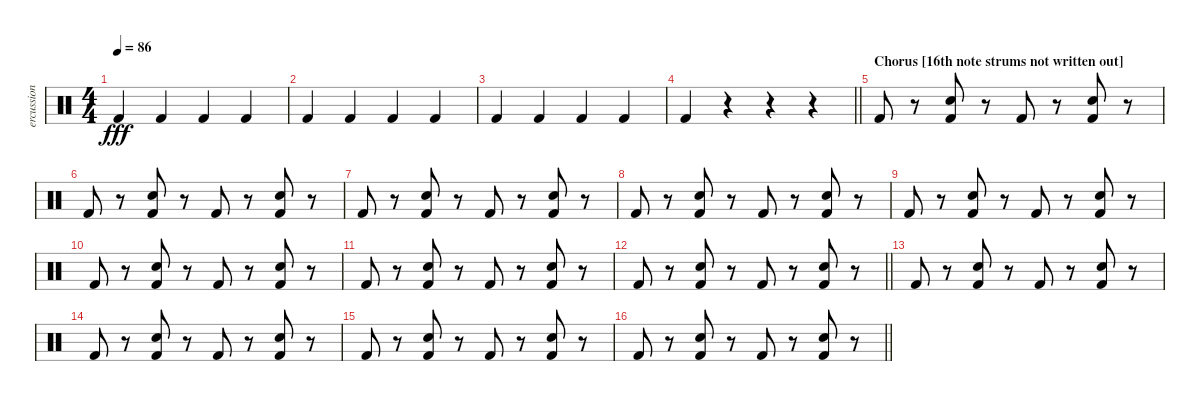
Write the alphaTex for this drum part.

\track ("ercussion" "ercussion") {instrument percussion}
\staff {score}
\articulation defaults
\ts (4 4)
\tempo 86
\clef neutral
\ks c "Kick (hit) 2".4{dy fff} "Kick (hit) 2".4 "Kick (hit) 2".4 "Kick (hit) 2".4
|
"Kick (hit) 2".4 "Kick (hit) 2".4 "Kick (hit) 2".4 "Kick (hit) 2".4 |
"Kick (hit) 2".4 "Kick (hit) 2".4 "Kick (hit) 2".4 "Kick (hit) 2".4 |
\barLineRight lightlight "Kick (hit) 2".4
r.4 r.4 r.4 |
\section ("" "Chorus [16th note strums not written out]")
"Kick (hit) 2".8 r.8 ("Snare (hit) 2" "Kick (hit) 2").8 r.8 "Kick (hit) 2".8 r.8 ("Snare (hit) 2" "Kick (hit) 2").8 r.8 |
"Kick (hit) 2".8 r.8 ("Snare (hit) 2" "Kick (hit) 2").8 r.8 "Kick (hit) 2".8 r.8 ("Snare (hit) 2" "Kick (hit) 2").8 r.8 |
"Kick (hit) 2".8 r.8 ("Snare (hit) 2" "Kick (hit) 2").8 r.8 "Kick (hit) 2".8 r.8 ("Snare (hit) 2" "Kick (hit) 2").8 r.8 |
"Kick (hit) 2".8 r.8 ("Snare (hit) 2" "Kick (hit) 2").8 r.8 "Kick (hit) 2".8 r.8 ("Snare (hit) 2" "Kick (hit) 2").8 r.8 |
"Kick (hit) 2".8 r.8 ("Snare (hit) 2" "Kick (hit) 2").8 r.8 "Kick (hit) 2".8 r.8 ("Snare (hit) 2" "Kick (hit) 2").8 r.8 |
"Kick (hit) 2".8 r.8 ("Snare (hit) 2" "Kick (hit) 2").8 r.8 "Kick (hit) 2".8 r.8 ("Snare (hit) 2" "Kick (hit) 2").8 r.8 |
"Kick (hit) 2".8 r.8 ("Snare (hit) 2" "Kick (hit) 2").8 r.8 "Kick (hit) 2".8 r.8 ("Snare (hit) 2" "Kick (hit) 2").8 r.8 |
\barLineRight lightlight "Kick (hit) 2".8
r.8 ("Snare (hit) 2" "Kick (hit) 2").8 r.8 "Kick (hit) 2".8 r.8 ("Snare (hit) 2" "Kick (hit) 2").8 r.8 |
"Kick (hit) 2".8 r.8 ("Snare (hit) 2" "Kick (hit) 2").8 r.8 "Kick (hit) 2".8 r.8 ("Snare (hit) 2" "Kick (hit) 2").8 r.8 |
"Kick (hit) 2".8 r.8 ("Snare (hit) 2" "Kick (hit) 2").8 r.8 "Kick (hit) 2".8 r.8 ("Snare (hit) 2" "Kick (hit) 2").8 r.8 |
"Kick (hit) 2".8 r.8 ("Snare (hit) 2" "Kick (hit) 2").8 r.8 "Kick (hit) 2".8 r.8 ("Snare (hit) 2" "Kick (hit) 2").8 r.8 |
\barLineRight lightlight "Kick (hit) 2".8
r.8 ("Snare (hit) 2" "Kick (hit) 2").8 r.8 "Kick (hit) 2".8 r.8 ("Snare (hit) 2" "Kick (hit) 2").8 r.8
